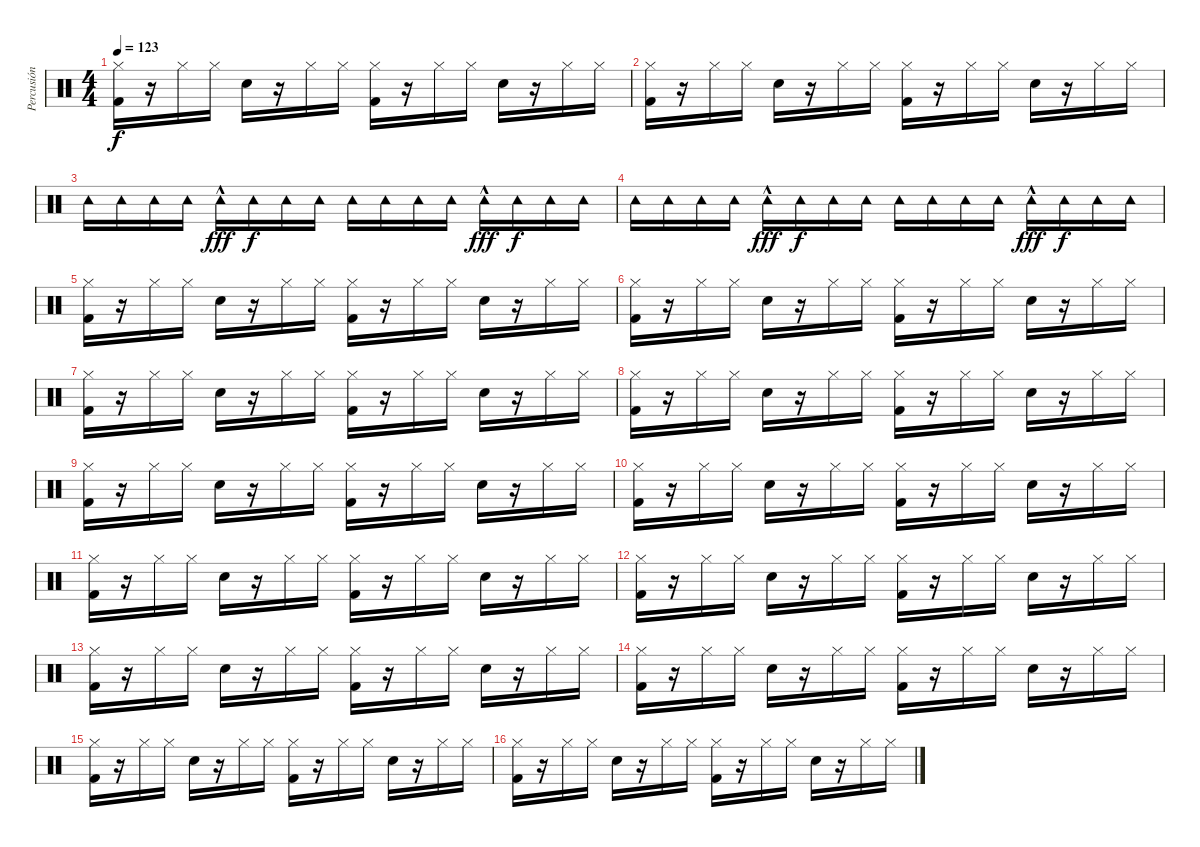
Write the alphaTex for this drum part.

\track ("Percusión" "Percusión") {instrument percussion}
\staff {score}
\articulation defaults
\ts (4 4)
\tempo 123
\clef neutral
\ks c
("Hi-Hat (closed)" "Kick (hit) 2").16{dy f} r.16 "Hi-Hat (closed)".16 "Hi-Hat (closed)".16 "Snare (hit) 2".16 r.16 "Hi-Hat (closed)".16 "Hi-Hat (closed)".16 ("Hi-Hat (closed)" "Kick (hit) 2").16 r.16 "Hi-Hat (closed)".16 "Hi-Hat (closed)".16 "Snare (hit) 2".16 r.16 "Hi-Hat (closed)".16 "Hi-Hat (closed)".16 |
("Hi-Hat (closed)" "Kick (hit) 2").16 r.16 "Hi-Hat (closed)".16 "Hi-Hat (closed)".16 "Snare (hit) 2".16 r.16 "Hi-Hat (closed)".16 "Hi-Hat (closed)".16 ("Hi-Hat (closed)" "Kick (hit) 2").16 r.16 "Hi-Hat (closed)".16 "Hi-Hat (closed)".16 "Snare (hit) 2".16 r.16 "Hi-Hat (closed)".16 "Hi-Hat (closed)".16 |
"Tambourine (hit)".16 "Tambourine (hit)".16 "Tambourine (hit)".16 "Tambourine (hit)".16 "Tambourine (hit)"{hac}.16{dy fff} "Tambourine (hit)".16{dy f} "Tambourine (hit)".16 "Tambourine (hit)".16 "Tambourine (hit)".16 "Tambourine (hit)".16 "Tambourine (hit)".16 "Tambourine (hit)".16 "Tambourine (hit)"{hac}.16{dy fff} "Tambourine (hit)".16{dy f} "Tambourine (hit)".16 "Tambourine (hit)".16 |
"Tambourine (hit)".16 "Tambourine (hit)".16 "Tambourine (hit)".16 "Tambourine (hit)".16 "Tambourine (hit)"{hac}.16{dy fff} "Tambourine (hit)".16{dy f} "Tambourine (hit)".16 "Tambourine (hit)".16 "Tambourine (hit)".16 "Tambourine (hit)".16 "Tambourine (hit)".16 "Tambourine (hit)".16 "Tambourine (hit)"{hac}.16{dy fff} "Tambourine (hit)".16{dy f} "Tambourine (hit)".16 "Tambourine (hit)".16 |
("Hi-Hat (closed)" "Kick (hit) 2").16 r.16 "Hi-Hat (closed)".16 "Hi-Hat (closed)".16 "Snare (hit) 2".16 r.16 "Hi-Hat (closed)".16 "Hi-Hat (closed)".16 ("Hi-Hat (closed)" "Kick (hit) 2").16 r.16 "Hi-Hat (closed)".16 "Hi-Hat (closed)".16 "Snare (hit) 2".16 r.16 "Hi-Hat (closed)".16 "Hi-Hat (closed)".16 |
("Hi-Hat (closed)" "Kick (hit) 2").16 r.16 "Hi-Hat (closed)".16 "Hi-Hat (closed)".16 "Snare (hit) 2".16 r.16 "Hi-Hat (closed)".16 "Hi-Hat (closed)".16 ("Hi-Hat (closed)" "Kick (hit) 2").16 r.16 "Hi-Hat (closed)".16 "Hi-Hat (closed)".16 "Snare (hit) 2".16 r.16 "Hi-Hat (closed)".16 "Hi-Hat (closed)".16 |
("Hi-Hat (closed)" "Kick (hit) 2").16 r.16 "Hi-Hat (closed)".16 "Hi-Hat (closed)".16 "Snare (hit) 2".16 r.16 "Hi-Hat (closed)".16 "Hi-Hat (closed)".16 ("Hi-Hat (closed)" "Kick (hit) 2").16 r.16 "Hi-Hat (closed)".16 "Hi-Hat (closed)".16 "Snare (hit) 2".16 r.16 "Hi-Hat (closed)".16 "Hi-Hat (closed)".16 |
("Hi-Hat (closed)" "Kick (hit) 2").16 r.16 "Hi-Hat (closed)".16 "Hi-Hat (closed)".16 "Snare (hit) 2".16 r.16 "Hi-Hat (closed)".16 "Hi-Hat (closed)".16 ("Hi-Hat (closed)" "Kick (hit) 2").16 r.16 "Hi-Hat (closed)".16 "Hi-Hat (closed)".16 "Snare (hit) 2".16 r.16 "Hi-Hat (closed)".16 "Hi-Hat (closed)".16 |
("Hi-Hat (closed)" "Kick (hit) 2").16 r.16 "Hi-Hat (closed)".16 "Hi-Hat (closed)".16 "Snare (hit) 2".16 r.16 "Hi-Hat (closed)".16 "Hi-Hat (closed)".16 ("Hi-Hat (closed)" "Kick (hit) 2").16 r.16 "Hi-Hat (closed)".16 "Hi-Hat (closed)".16 "Snare (hit) 2".16 r.16 "Hi-Hat (closed)".16 "Hi-Hat (closed)".16 |
("Hi-Hat (closed)" "Kick (hit) 2").16 r.16 "Hi-Hat (closed)".16 "Hi-Hat (closed)".16 "Snare (hit) 2".16 r.16 "Hi-Hat (closed)".16 "Hi-Hat (closed)".16 ("Hi-Hat (closed)" "Kick (hit) 2").16 r.16 "Hi-Hat (closed)".16 "Hi-Hat (closed)".16 "Snare (hit) 2".16 r.16 "Hi-Hat (closed)".16 "Hi-Hat (closed)".16 |
("Hi-Hat (closed)" "Kick (hit) 2").16 r.16 "Hi-Hat (closed)".16 "Hi-Hat (closed)".16 "Snare (hit) 2".16 r.16 "Hi-Hat (closed)".16 "Hi-Hat (closed)".16 ("Hi-Hat (closed)" "Kick (hit) 2").16 r.16 "Hi-Hat (closed)".16 "Hi-Hat (closed)".16 "Snare (hit) 2".16 r.16 "Hi-Hat (closed)".16 "Hi-Hat (closed)".16 |
("Hi-Hat (closed)" "Kick (hit) 2").16 r.16 "Hi-Hat (closed)".16 "Hi-Hat (closed)".16 "Snare (hit) 2".16 r.16 "Hi-Hat (closed)".16 "Hi-Hat (closed)".16 ("Hi-Hat (closed)" "Kick (hit) 2").16 r.16 "Hi-Hat (closed)".16 "Hi-Hat (closed)".16 "Snare (hit) 2".16 r.16 "Hi-Hat (closed)".16 "Hi-Hat (closed)".16 |
("Hi-Hat (closed)" "Kick (hit) 2").16 r.16 "Hi-Hat (closed)".16 "Hi-Hat (closed)".16 "Snare (hit) 2".16 r.16 "Hi-Hat (closed)".16 "Hi-Hat (closed)".16 ("Hi-Hat (closed)" "Kick (hit) 2").16 r.16 "Hi-Hat (closed)".16 "Hi-Hat (closed)".16 "Snare (hit) 2".16 r.16 "Hi-Hat (closed)".16 "Hi-Hat (closed)".16 |
("Hi-Hat (closed)" "Kick (hit) 2").16 r.16 "Hi-Hat (closed)".16 "Hi-Hat (closed)".16 "Snare (hit) 2".16 r.16 "Hi-Hat (closed)".16 "Hi-Hat (closed)".16 ("Hi-Hat (closed)" "Kick (hit) 2").16 r.16 "Hi-Hat (closed)".16 "Hi-Hat (closed)".16 "Snare (hit) 2".16 r.16 "Hi-Hat (closed)".16 "Hi-Hat (closed)".16 |
("Hi-Hat (closed)" "Kick (hit) 2").16 r.16 "Hi-Hat (closed)".16 "Hi-Hat (closed)".16 "Snare (hit) 2".16 r.16 "Hi-Hat (closed)".16 "Hi-Hat (closed)".16 ("Hi-Hat (closed)" "Kick (hit) 2").16 r.16 "Hi-Hat (closed)".16 "Hi-Hat (closed)".16 "Snare (hit) 2".16 r.16 "Hi-Hat (closed)".16 "Hi-Hat (closed)".16 |
("Hi-Hat (closed)" "Kick (hit) 2").16 r.16 "Hi-Hat (closed)".16 "Hi-Hat (closed)".16 "Snare (hit) 2".16 r.16 "Hi-Hat (closed)".16 "Hi-Hat (closed)".16 ("Hi-Hat (closed)" "Kick (hit) 2").16 r.16 "Hi-Hat (closed)".16 "Hi-Hat (closed)".16 "Snare (hit) 2".16 r.16 "Hi-Hat (closed)".16 "Hi-Hat (closed)".16
